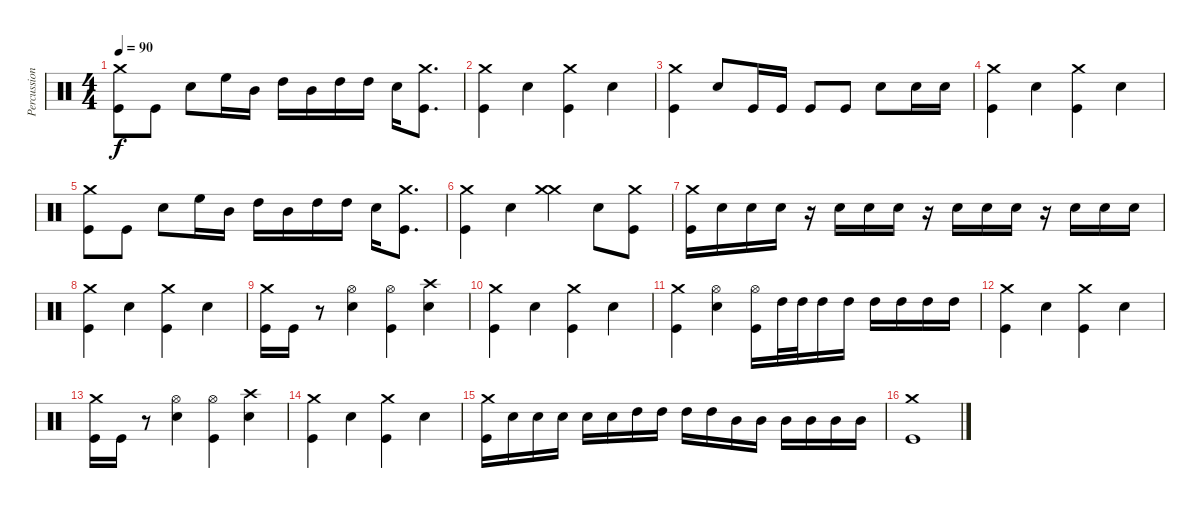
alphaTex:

\track ("Percussion" "Percussion") {instrument percussion}
\staff {score}
\articulation defaults
\ts (4 4)
\tempo 90
\clef neutral
\ks c
("Crash medium (hit)" "Kick (hit)").8{dy f} "Kick (hit)".8 "Snare (hit) 2".8 "High Floor Tom (hit)".16 "Mid Tom (hit)".16 "High Tom (hit)".16 "Mid Tom (hit)".16 "High Tom (hit)".16 "High Tom (hit)".16 "Snare (hit) 2".16 ("Crash medium (hit)" "Kick (hit)").8{d} |
("Crash medium (hit)" "Kick (hit)").4 "Snare (hit) 2".4 ("Crash medium (hit)" "Kick (hit)").4 "Snare (hit) 2".4 |
("Crash medium (hit)" "Kick (hit)").4 "Snare (hit) 2".8 "Kick (hit)".16 "Kick (hit)".16 "Kick (hit)".8 "Kick (hit)".8 "Snare (hit) 2".8 "Snare (hit) 2".16 "Snare (hit) 2".16 |
("Crash medium (hit)" "Kick (hit)").4 "Snare (hit) 2".4 ("Crash medium (hit)" "Kick (hit)").4 "Snare (hit) 2".4 |
("Crash medium (hit)" "Kick (hit)").8 "Kick (hit)".8 "Snare (hit) 2".8 "High Floor Tom (hit)".16 "Mid Tom (hit)".16 "High Tom (hit)".16 "Mid Tom (hit)".16 "High Tom (hit)".16 "High Tom (hit)".16 "Snare (hit) 2".16 ("Crash medium (hit)" "Kick (hit)").8{d} |
("Crash medium (hit)" "Kick (hit)").4 "Snare (hit) 2".4 ("Crash medium (hit)" "Crash medium (hit)").4 "Snare (hit) 2".8 ("Crash medium (hit)" "Kick (hit)").8 |
("Crash medium (hit)" "Kick (hit)").16 "Snare (hit) 2".16 "Snare (hit) 2".16 "Snare (hit) 2".16 r.16 "Snare (hit) 2".16 "Snare (hit) 2".16 "Snare (hit) 2".16 r.16 "Snare (hit) 2".16 "Snare (hit) 2".16 "Snare (hit) 2".16 r.16 "Snare (hit) 2".16 "Snare (hit) 2".16 "Snare (hit) 2".16 |
("Crash medium (hit)" "Kick (hit)").4 "Snare (hit) 2".4 ("Crash medium (hit)" "Kick (hit)").4 "Snare (hit) 2".4 |
("Crash medium (hit)" "Kick (hit)").16 "Kick (hit)".16 r.8 ("Hi-Hat (open)" "Snare (hit) 2").4 ("Hi-Hat (open)" "Kick (hit)").4 ("Crash high (hit)" "Snare (hit) 2").4 |
("Crash medium (hit)" "Kick (hit)").4 "Snare (hit) 2".4 ("Crash medium (hit)" "Kick (hit)").4 "Snare (hit) 2".4 |
("Crash medium (hit)" "Kick (hit)").4 ("Hi-Hat (open)" "Snare (hit) 2").4 ("Hi-Hat (open)" "Kick (hit)").16 "High Tom (hit)".32 "High Tom (hit)".32 "High Tom (hit)".16 "High Tom (hit)".16 "High Tom (hit)".16 "High Tom (hit)".16 "High Tom (hit)".16 "High Tom (hit)".16 |
("Crash medium (hit)" "Kick (hit)").4 "Snare (hit) 2".4 ("Crash medium (hit)" "Kick (hit)").4 "Snare (hit) 2".4 |
("Crash medium (hit)" "Kick (hit)").16 "Kick (hit)".16 r.8 ("Hi-Hat (open)" "Snare (hit) 2").4 ("Hi-Hat (open)" "Kick (hit)").4 ("Crash high (hit)" "Snare (hit) 2").4 |
("Crash medium (hit)" "Kick (hit)").4 "Snare (hit) 2".4 ("Crash medium (hit)" "Kick (hit)").4 "Snare (hit) 2".4 |
("Crash medium (hit)" "Kick (hit)").16 "Snare (hit) 2".16 "Snare (hit) 2".16 "Snare (hit) 2".16 "Snare (hit) 2".16 "Snare (hit) 2".16 "High Tom (hit)".16 "High Tom (hit)".16 "High Tom (hit)".16 "High Tom (hit)".16 "Mid Tom (hit)".16 "Mid Tom (hit)".16 "Mid Tom (hit)".16 "Mid Tom (hit)".16 "Mid Tom (hit)".16 "Mid Tom (hit)".16 |
("Crash medium (hit)" "Kick (hit)").1
